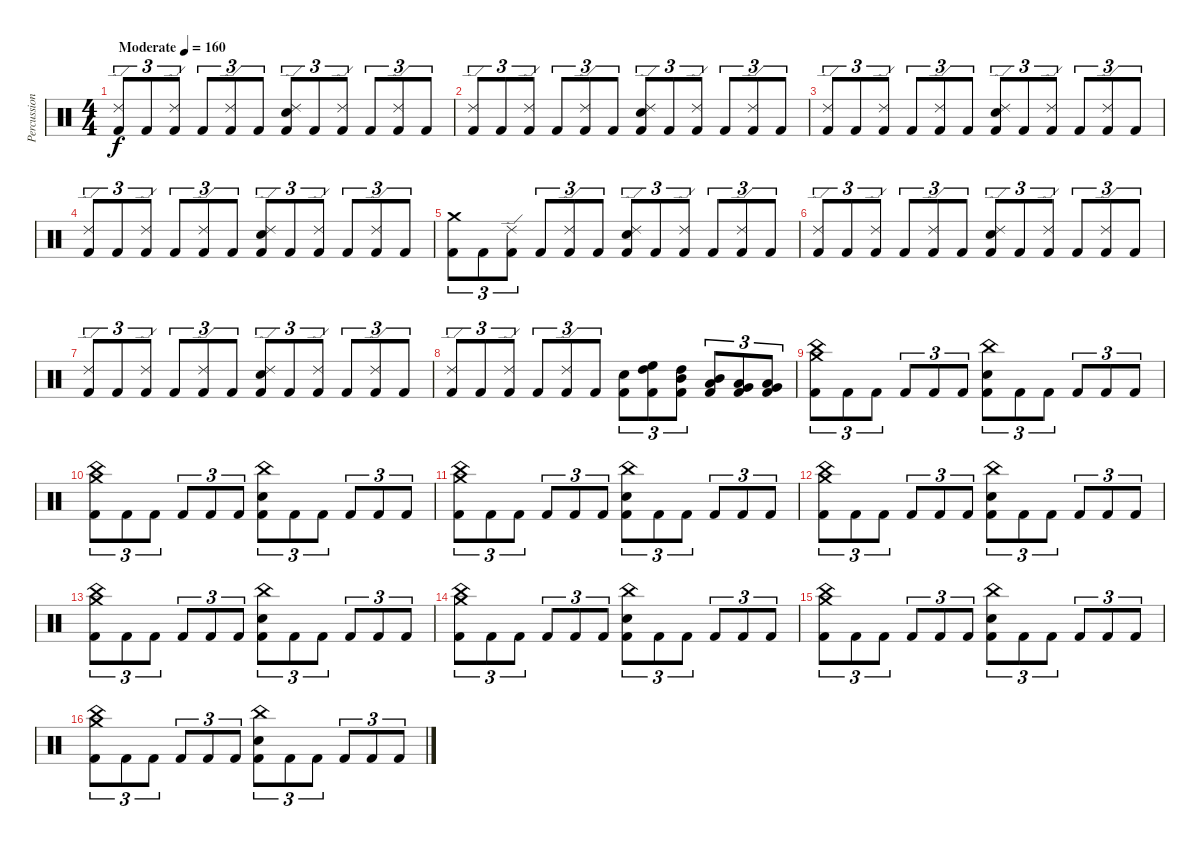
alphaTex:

\track ("Percussion" "Percussion") {instrument percussion}
\staff {score}
\articulation defaults
\ts (4 4)
\tempo (160 "Moderate")
\clef neutral
\ks c
("Kick (hit) 2" "Ride (edge) 2").8{tu (3 2) dy f} "Kick (hit) 2".8{tu (3 2)} ("Kick (hit) 2" "Ride (edge) 2").8{tu (3 2)} "Kick (hit) 2".8{tu (3 2)} ("Kick (hit) 2" "Ride (edge) 2").8{tu (3 2)} "Kick (hit) 2".8{tu (3 2)} ("Kick (hit) 2" "Snare (hit) 2" "Ride (edge) 2").8{tu (3 2)} "Kick (hit) 2".8{tu (3 2)} ("Kick (hit) 2" "Ride (edge) 2").8{tu (3 2)} "Kick (hit) 2".8{tu (3 2)} ("Kick (hit) 2" "Ride (edge) 2").8{tu (3 2)} "Kick (hit) 2".8{tu (3 2)} |
("Kick (hit) 2" "Ride (edge) 2").8{tu (3 2)} "Kick (hit) 2".8{tu (3 2)} ("Kick (hit) 2" "Ride (edge) 2").8{tu (3 2)} "Kick (hit) 2".8{tu (3 2)} ("Kick (hit) 2" "Ride (edge) 2").8{tu (3 2)} "Kick (hit) 2".8{tu (3 2)} ("Kick (hit) 2" "Snare (hit) 2" "Ride (edge) 2").8{tu (3 2)} "Kick (hit) 2".8{tu (3 2)} ("Kick (hit) 2" "Ride (edge) 2").8{tu (3 2)} "Kick (hit) 2".8{tu (3 2)} ("Kick (hit) 2" "Ride (edge) 2").8{tu (3 2)} "Kick (hit) 2".8{tu (3 2)} |
("Kick (hit) 2" "Ride (edge) 2").8{tu (3 2)} "Kick (hit) 2".8{tu (3 2)} ("Kick (hit) 2" "Ride (edge) 2").8{tu (3 2)} "Kick (hit) 2".8{tu (3 2)} ("Kick (hit) 2" "Ride (edge) 2").8{tu (3 2)} "Kick (hit) 2".8{tu (3 2)} ("Kick (hit) 2" "Snare (hit) 2" "Ride (edge) 2").8{tu (3 2)} "Kick (hit) 2".8{tu (3 2)} ("Kick (hit) 2" "Ride (edge) 2").8{tu (3 2)} "Kick (hit) 2".8{tu (3 2)} ("Kick (hit) 2" "Ride (edge) 2").8{tu (3 2)} "Kick (hit) 2".8{tu (3 2)} |
("Kick (hit) 2" "Ride (edge) 2").8{tu (3 2)} "Kick (hit) 2".8{tu (3 2)} ("Kick (hit) 2" "Ride (edge) 2").8{tu (3 2)} "Kick (hit) 2".8{tu (3 2)} ("Kick (hit) 2" "Ride (edge) 2").8{tu (3 2)} "Kick (hit) 2".8{tu (3 2)} ("Kick (hit) 2" "Snare (hit) 2" "Ride (edge) 2").8{tu (3 2)} "Kick (hit) 2".8{tu (3 2)} ("Kick (hit) 2" "Ride (edge) 2").8{tu (3 2)} "Kick (hit) 2".8{tu (3 2)} ("Kick (hit) 2" "Ride (edge) 2").8{tu (3 2)} "Kick (hit) 2".8{tu (3 2)} |
("Kick (hit) 2" "Crash medium (hit)").8{tu (3 2)} "Kick (hit) 2".8{tu (3 2)} ("Kick (hit) 2" "Ride (edge) 2").8{tu (3 2)} "Kick (hit) 2".8{tu (3 2)} ("Kick (hit) 2" "Ride (edge) 2").8{tu (3 2)} "Kick (hit) 2".8{tu (3 2)} ("Kick (hit) 2" "Snare (hit) 2" "Ride (edge) 2").8{tu (3 2)} "Kick (hit) 2".8{tu (3 2)} ("Kick (hit) 2" "Ride (edge) 2").8{tu (3 2)} "Kick (hit) 2".8{tu (3 2)} ("Kick (hit) 2" "Ride (edge) 2").8{tu (3 2)} "Kick (hit) 2".8{tu (3 2)} |
("Kick (hit) 2" "Ride (edge) 2").8{tu (3 2)} "Kick (hit) 2".8{tu (3 2)} ("Kick (hit) 2" "Ride (edge) 2").8{tu (3 2)} "Kick (hit) 2".8{tu (3 2)} ("Kick (hit) 2" "Ride (edge) 2").8{tu (3 2)} "Kick (hit) 2".8{tu (3 2)} ("Kick (hit) 2" "Snare (hit) 2" "Ride (edge) 2").8{tu (3 2)} "Kick (hit) 2".8{tu (3 2)} ("Kick (hit) 2" "Ride (edge) 2").8{tu (3 2)} "Kick (hit) 2".8{tu (3 2)} ("Kick (hit) 2" "Ride (edge) 2").8{tu (3 2)} "Kick (hit) 2".8{tu (3 2)} |
("Kick (hit) 2" "Ride (edge) 2").8{tu (3 2)} "Kick (hit) 2".8{tu (3 2)} ("Kick (hit) 2" "Ride (edge) 2").8{tu (3 2)} "Kick (hit) 2".8{tu (3 2)} ("Kick (hit) 2" "Ride (edge) 2").8{tu (3 2)} "Kick (hit) 2".8{tu (3 2)} ("Kick (hit) 2" "Snare (hit) 2" "Ride (edge) 2").8{tu (3 2)} "Kick (hit) 2".8{tu (3 2)} ("Kick (hit) 2" "Ride (edge) 2").8{tu (3 2)} "Kick (hit) 2".8{tu (3 2)} ("Kick (hit) 2" "Ride (edge) 2").8{tu (3 2)} "Kick (hit) 2".8{tu (3 2)} |
("Kick (hit) 2" "Ride (edge) 2").8{tu (3 2)} "Kick (hit) 2".8{tu (3 2)} ("Kick (hit) 2" "Ride (edge) 2").8{tu (3 2)} "Kick (hit) 2".8{tu (3 2)} ("Kick (hit) 2" "Ride (edge) 2").8{tu (3 2)} "Kick (hit) 2".8{tu (3 2)} ("Kick (hit) 2" "Snare (hit) 2").8{tu (3 2)} ("Kick (hit) 2" "High Tom (hit)" "High Floor Tom (hit)").8{tu (3 2)} ("Kick (hit) 2" "Mid Tom (hit)" "High Tom (hit)").8{tu (3 2)} ("Kick (hit) 2" "Low Tom (hit)" "Mid Tom (hit)").8{tu (3 2)} ("Kick (hit) 2" "Very Low Tom (hit)" "Low Tom (hit)").8{tu (3 2)} ("Kick (hit) 2" "Low Floor Tom (hit)" "Very Low Tom (hit)").8{tu (3 2)} |
("Kick (hit) 2" "China (hit)" "Crash medium (hit)").8{tu (3 2)} "Kick (hit) 2".8{tu (3 2)} "Kick (hit) 2".8{tu (3 2)} "Kick (hit) 2".8{tu (3 2)} "Kick (hit) 2".8{tu (3 2)} "Kick (hit) 2".8{tu (3 2)} ("Kick (hit) 2" "Snare (hit) 2" "China (hit)").8{tu (3 2)} "Kick (hit) 2".8{tu (3 2)} "Kick (hit) 2".8{tu (3 2)} "Kick (hit) 2".8{tu (3 2)} "Kick (hit) 2".8{tu (3 2)} "Kick (hit) 2".8{tu (3 2)} |
("Kick (hit) 2" "China (hit)" "Crash medium (hit)").8{tu (3 2)} "Kick (hit) 2".8{tu (3 2)} "Kick (hit) 2".8{tu (3 2)} "Kick (hit) 2".8{tu (3 2)} "Kick (hit) 2".8{tu (3 2)} "Kick (hit) 2".8{tu (3 2)} ("Kick (hit) 2" "Snare (hit) 2" "China (hit)").8{tu (3 2)} "Kick (hit) 2".8{tu (3 2)} "Kick (hit) 2".8{tu (3 2)} "Kick (hit) 2".8{tu (3 2)} "Kick (hit) 2".8{tu (3 2)} "Kick (hit) 2".8{tu (3 2)} |
("Kick (hit) 2" "China (hit)" "Crash medium (hit)").8{tu (3 2)} "Kick (hit) 2".8{tu (3 2)} "Kick (hit) 2".8{tu (3 2)} "Kick (hit) 2".8{tu (3 2)} "Kick (hit) 2".8{tu (3 2)} "Kick (hit) 2".8{tu (3 2)} ("Kick (hit) 2" "Snare (hit) 2" "China (hit)").8{tu (3 2)} "Kick (hit) 2".8{tu (3 2)} "Kick (hit) 2".8{tu (3 2)} "Kick (hit) 2".8{tu (3 2)} "Kick (hit) 2".8{tu (3 2)} "Kick (hit) 2".8{tu (3 2)} |
("Kick (hit) 2" "China (hit)" "Crash medium (hit)").8{tu (3 2)} "Kick (hit) 2".8{tu (3 2)} "Kick (hit) 2".8{tu (3 2)} "Kick (hit) 2".8{tu (3 2)} "Kick (hit) 2".8{tu (3 2)} "Kick (hit) 2".8{tu (3 2)} ("Kick (hit) 2" "Snare (hit) 2" "China (hit)").8{tu (3 2)} "Kick (hit) 2".8{tu (3 2)} "Kick (hit) 2".8{tu (3 2)} "Kick (hit) 2".8{tu (3 2)} "Kick (hit) 2".8{tu (3 2)} "Kick (hit) 2".8{tu (3 2)} |
("Kick (hit) 2" "China (hit)" "Crash medium (hit)").8{tu (3 2)} "Kick (hit) 2".8{tu (3 2)} "Kick (hit) 2".8{tu (3 2)} "Kick (hit) 2".8{tu (3 2)} "Kick (hit) 2".8{tu (3 2)} "Kick (hit) 2".8{tu (3 2)} ("Kick (hit) 2" "Snare (hit) 2" "China (hit)").8{tu (3 2)} "Kick (hit) 2".8{tu (3 2)} "Kick (hit) 2".8{tu (3 2)} "Kick (hit) 2".8{tu (3 2)} "Kick (hit) 2".8{tu (3 2)} "Kick (hit) 2".8{tu (3 2)} |
("Kick (hit) 2" "China (hit)" "Crash medium (hit)").8{tu (3 2)} "Kick (hit) 2".8{tu (3 2)} "Kick (hit) 2".8{tu (3 2)} "Kick (hit) 2".8{tu (3 2)} "Kick (hit) 2".8{tu (3 2)} "Kick (hit) 2".8{tu (3 2)} ("Kick (hit) 2" "Snare (hit) 2" "China (hit)").8{tu (3 2)} "Kick (hit) 2".8{tu (3 2)} "Kick (hit) 2".8{tu (3 2)} "Kick (hit) 2".8{tu (3 2)} "Kick (hit) 2".8{tu (3 2)} "Kick (hit) 2".8{tu (3 2)} |
("Kick (hit) 2" "China (hit)" "Crash medium (hit)").8{tu (3 2)} "Kick (hit) 2".8{tu (3 2)} "Kick (hit) 2".8{tu (3 2)} "Kick (hit) 2".8{tu (3 2)} "Kick (hit) 2".8{tu (3 2)} "Kick (hit) 2".8{tu (3 2)} ("Kick (hit) 2" "Snare (hit) 2" "China (hit)").8{tu (3 2)} "Kick (hit) 2".8{tu (3 2)} "Kick (hit) 2".8{tu (3 2)} "Kick (hit) 2".8{tu (3 2)} "Kick (hit) 2".8{tu (3 2)} "Kick (hit) 2".8{tu (3 2)} |
("Kick (hit) 2" "China (hit)" "Crash medium (hit)").8{tu (3 2)} "Kick (hit) 2".8{tu (3 2)} "Kick (hit) 2".8{tu (3 2)} "Kick (hit) 2".8{tu (3 2)} "Kick (hit) 2".8{tu (3 2)} "Kick (hit) 2".8{tu (3 2)} ("Kick (hit) 2" "Snare (hit) 2" "China (hit)").8{tu (3 2)} "Kick (hit) 2".8{tu (3 2)} "Kick (hit) 2".8{tu (3 2)} "Kick (hit) 2".8{tu (3 2)} "Kick (hit) 2".8{tu (3 2)} "Kick (hit) 2".8{tu (3 2)}
